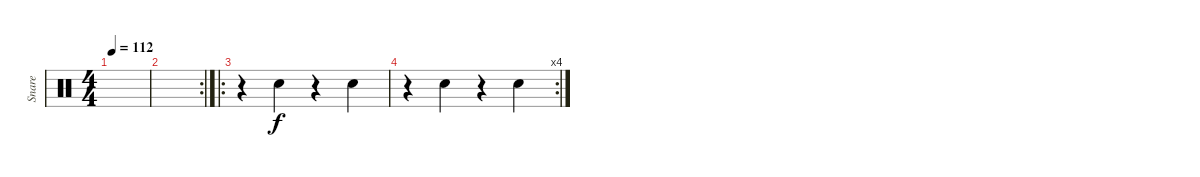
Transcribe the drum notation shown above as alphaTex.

\track ("Snare" "Snare") {instrument percussion}
\staff {score}
\articulation defaults
\ts (4 4)
\tempo 112
\clef neutral
\ks c
|
\rc 2
|
\ro
r.4 "Snare (hit) 2".4 r.4 "Snare (hit) 2".4 |
\rc 4
r.4 "Snare (hit) 2".4 r.4 "Snare (hit) 2".4
